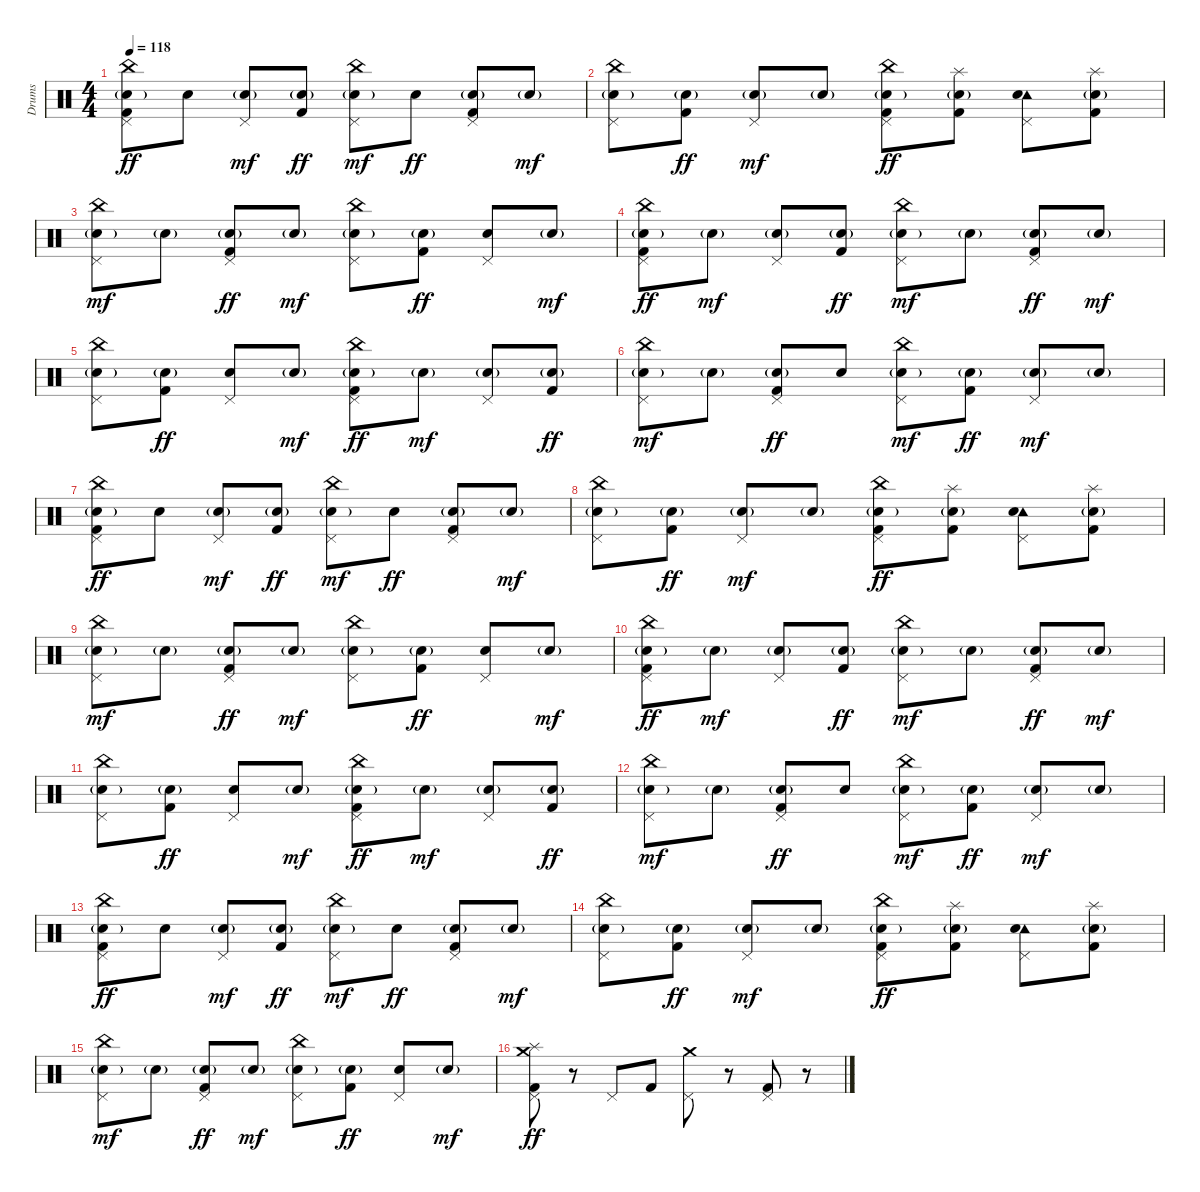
\track ("Drums" "Drums") {instrument percussion}
\staff {score}
\articulation defaults
\ts (4 4)
\tempo 118
\clef neutral
\ks c
("China (hit)" "Pedal Hi-Hat (hit)" "Electric Snare (hit)"{g} "Kick (hit) 2").8{dy ff} "Electric Snare (hit)".8 ("Pedal Hi-Hat (hit)" "Electric Snare (hit)"{g}).8{dy mf} ("Electric Snare (hit)"{g} "Kick (hit) 2").8{dy ff} ("China (hit)" "Pedal Hi-Hat (hit)" "Electric Snare (hit)"{g}).8{dy mf} "Electric Snare (hit)".8{dy ff} ("Pedal Hi-Hat (hit)" "Electric Snare (hit)"{g} "Kick (hit) 2").8 "Electric Snare (hit)"{g}.8{dy mf} |
("China (hit)" "Pedal Hi-Hat (hit)" "Electric Snare (hit)"{g}).8 ("Electric Snare (hit)"{g} "Kick (hit) 2").8{dy ff} ("Pedal Hi-Hat (hit)" "Electric Snare (hit)"{g}).8{dy mf} "Electric Snare (hit)"{g}.8 ("China (hit)" "Pedal Hi-Hat (hit)" "Electric Snare (hit)"{g} "Kick (hit) 2").8{dy ff} ("Splash (hit)" "Electric Snare (hit)"{g} "Kick (hit) 2").8 ("Tambourine (hit)" "Pedal Hi-Hat (hit)" "Electric Snare (hit)").8 ("Splash (hit)" "Electric Snare (hit)"{g} "Kick (hit) 2").8 |
("China (hit)" "Pedal Hi-Hat (hit)" "Electric Snare (hit)"{g}).8{dy mf} "Electric Snare (hit)"{g}.8 ("Pedal Hi-Hat (hit)" "Electric Snare (hit)"{g} "Kick (hit) 2").8{dy ff} "Electric Snare (hit)"{g}.8{dy mf} ("China (hit)" "Pedal Hi-Hat (hit)" "Electric Snare (hit)"{g}).8 ("Electric Snare (hit)"{g} "Kick (hit) 2").8{dy ff} ("Pedal Hi-Hat (hit)" "Electric Snare (hit)").8 "Electric Snare (hit)"{g}.8{dy mf} |
("China (hit)" "Pedal Hi-Hat (hit)" "Electric Snare (hit)"{g} "Kick (hit) 2").8{dy ff} "Electric Snare (hit)"{g}.8{dy mf} ("Pedal Hi-Hat (hit)" "Electric Snare (hit)"{g}).8 ("Electric Snare (hit)"{g} "Kick (hit) 2").8{dy ff} ("China (hit)" "Pedal Hi-Hat (hit)" "Electric Snare (hit)"{g}).8{dy mf} "Electric Snare (hit)"{g}.8 ("Pedal Hi-Hat (hit)" "Electric Snare (hit)"{g} "Kick (hit) 2").8{dy ff} "Electric Snare (hit)"{g}.8{dy mf} |
("China (hit)" "Pedal Hi-Hat (hit)" "Electric Snare (hit)"{g}).8 ("Electric Snare (hit)"{g} "Kick (hit) 2").8{dy ff} ("Pedal Hi-Hat (hit)" "Electric Snare (hit)").8 "Electric Snare (hit)"{g}.8{dy mf} ("China (hit)" "Pedal Hi-Hat (hit)" "Electric Snare (hit)"{g} "Kick (hit) 2").8{dy ff} "Electric Snare (hit)"{g}.8{dy mf} ("Pedal Hi-Hat (hit)" "Electric Snare (hit)"{g}).8 ("Electric Snare (hit)"{g} "Kick (hit) 2").8{dy ff} |
("China (hit)" "Pedal Hi-Hat (hit)" "Electric Snare (hit)"{g}).8{dy mf} "Electric Snare (hit)"{g}.8 ("Pedal Hi-Hat (hit)" "Electric Snare (hit)"{g} "Kick (hit) 2").8{dy ff} "Electric Snare (hit)".8 ("China (hit)" "Pedal Hi-Hat (hit)" "Electric Snare (hit)"{g}).8{dy mf} ("Electric Snare (hit)"{g} "Kick (hit) 2").8{dy ff} ("Pedal Hi-Hat (hit)" "Electric Snare (hit)"{g}).8{dy mf} "Electric Snare (hit)"{g}.8 |
("China (hit)" "Pedal Hi-Hat (hit)" "Electric Snare (hit)"{g} "Kick (hit) 2").8{dy ff} "Electric Snare (hit)".8 ("Pedal Hi-Hat (hit)" "Electric Snare (hit)"{g}).8{dy mf} ("Electric Snare (hit)"{g} "Kick (hit) 2").8{dy ff} ("China (hit)" "Pedal Hi-Hat (hit)" "Electric Snare (hit)"{g}).8{dy mf} "Electric Snare (hit)".8{dy ff} ("Pedal Hi-Hat (hit)" "Electric Snare (hit)"{g} "Kick (hit) 2").8 "Electric Snare (hit)"{g}.8{dy mf} |
("China (hit)" "Pedal Hi-Hat (hit)" "Electric Snare (hit)"{g}).8 ("Electric Snare (hit)"{g} "Kick (hit) 2").8{dy ff} ("Pedal Hi-Hat (hit)" "Electric Snare (hit)"{g}).8{dy mf} "Electric Snare (hit)"{g}.8 ("China (hit)" "Pedal Hi-Hat (hit)" "Electric Snare (hit)"{g} "Kick (hit) 2").8{dy ff} ("Splash (hit)" "Electric Snare (hit)"{g} "Kick (hit) 2").8 ("Tambourine (hit)" "Pedal Hi-Hat (hit)" "Electric Snare (hit)").8 ("Splash (hit)" "Electric Snare (hit)"{g} "Kick (hit) 2").8 |
("China (hit)" "Pedal Hi-Hat (hit)" "Electric Snare (hit)"{g}).8{dy mf} "Electric Snare (hit)"{g}.8 ("Pedal Hi-Hat (hit)" "Electric Snare (hit)"{g} "Kick (hit) 2").8{dy ff} "Electric Snare (hit)"{g}.8{dy mf} ("China (hit)" "Pedal Hi-Hat (hit)" "Electric Snare (hit)"{g}).8 ("Electric Snare (hit)"{g} "Kick (hit) 2").8{dy ff} ("Pedal Hi-Hat (hit)" "Electric Snare (hit)").8 "Electric Snare (hit)"{g}.8{dy mf} |
("China (hit)" "Pedal Hi-Hat (hit)" "Electric Snare (hit)"{g} "Kick (hit) 2").8{dy ff} "Electric Snare (hit)"{g}.8{dy mf} ("Pedal Hi-Hat (hit)" "Electric Snare (hit)"{g}).8 ("Electric Snare (hit)"{g} "Kick (hit) 2").8{dy ff} ("China (hit)" "Pedal Hi-Hat (hit)" "Electric Snare (hit)"{g}).8{dy mf} "Electric Snare (hit)"{g}.8 ("Pedal Hi-Hat (hit)" "Electric Snare (hit)"{g} "Kick (hit) 2").8{dy ff} "Electric Snare (hit)"{g}.8{dy mf} |
("China (hit)" "Pedal Hi-Hat (hit)" "Electric Snare (hit)"{g}).8 ("Electric Snare (hit)"{g} "Kick (hit) 2").8{dy ff} ("Pedal Hi-Hat (hit)" "Electric Snare (hit)").8 "Electric Snare (hit)"{g}.8{dy mf} ("China (hit)" "Pedal Hi-Hat (hit)" "Electric Snare (hit)"{g} "Kick (hit) 2").8{dy ff} "Electric Snare (hit)"{g}.8{dy mf} ("Pedal Hi-Hat (hit)" "Electric Snare (hit)"{g}).8 ("Electric Snare (hit)"{g} "Kick (hit) 2").8{dy ff} |
("China (hit)" "Pedal Hi-Hat (hit)" "Electric Snare (hit)"{g}).8{dy mf} "Electric Snare (hit)"{g}.8 ("Pedal Hi-Hat (hit)" "Electric Snare (hit)"{g} "Kick (hit) 2").8{dy ff} "Electric Snare (hit)".8 ("China (hit)" "Pedal Hi-Hat (hit)" "Electric Snare (hit)"{g}).8{dy mf} ("Electric Snare (hit)"{g} "Kick (hit) 2").8{dy ff} ("Pedal Hi-Hat (hit)" "Electric Snare (hit)"{g}).8{dy mf} "Electric Snare (hit)"{g}.8 |
("China (hit)" "Pedal Hi-Hat (hit)" "Electric Snare (hit)"{g} "Kick (hit) 2").8{dy ff} "Electric Snare (hit)".8 ("Pedal Hi-Hat (hit)" "Electric Snare (hit)"{g}).8{dy mf} ("Electric Snare (hit)"{g} "Kick (hit) 2").8{dy ff} ("China (hit)" "Pedal Hi-Hat (hit)" "Electric Snare (hit)"{g}).8{dy mf} "Electric Snare (hit)".8{dy ff} ("Pedal Hi-Hat (hit)" "Electric Snare (hit)"{g} "Kick (hit) 2").8 "Electric Snare (hit)"{g}.8{dy mf} |
("China (hit)" "Pedal Hi-Hat (hit)" "Electric Snare (hit)"{g}).8 ("Electric Snare (hit)"{g} "Kick (hit) 2").8{dy ff} ("Pedal Hi-Hat (hit)" "Electric Snare (hit)"{g}).8{dy mf} "Electric Snare (hit)"{g}.8 ("China (hit)" "Pedal Hi-Hat (hit)" "Electric Snare (hit)"{g} "Kick (hit) 2").8{dy ff} ("Splash (hit)" "Electric Snare (hit)"{g} "Kick (hit) 2").8 ("Tambourine (hit)" "Pedal Hi-Hat (hit)" "Electric Snare (hit)").8 ("Splash (hit)" "Electric Snare (hit)"{g} "Kick (hit) 2").8 |
("China (hit)" "Pedal Hi-Hat (hit)" "Electric Snare (hit)"{g}).8{dy mf} "Electric Snare (hit)"{g}.8 ("Pedal Hi-Hat (hit)" "Electric Snare (hit)"{g} "Kick (hit) 2").8{dy ff} "Electric Snare (hit)"{g}.8{dy mf} ("China (hit)" "Pedal Hi-Hat (hit)" "Electric Snare (hit)"{g}).8 ("Electric Snare (hit)"{g} "Kick (hit) 2").8{dy ff} ("Pedal Hi-Hat (hit)" "Electric Snare (hit)").8 "Electric Snare (hit)"{g}.8{dy mf} |
\section ("" "")
("Crash medium (hit)" "Splash (hit)" "Pedal Hi-Hat (hit)" "Kick (hit) 2").8{dy ff} r.8 "Pedal Hi-Hat (hit)".8 "Kick (hit) 2".8 ("Crash medium (hit)" "Pedal Hi-Hat (hit)").8 r.8 ("Pedal Hi-Hat (hit)" "Kick (hit) 2").8 r.8
